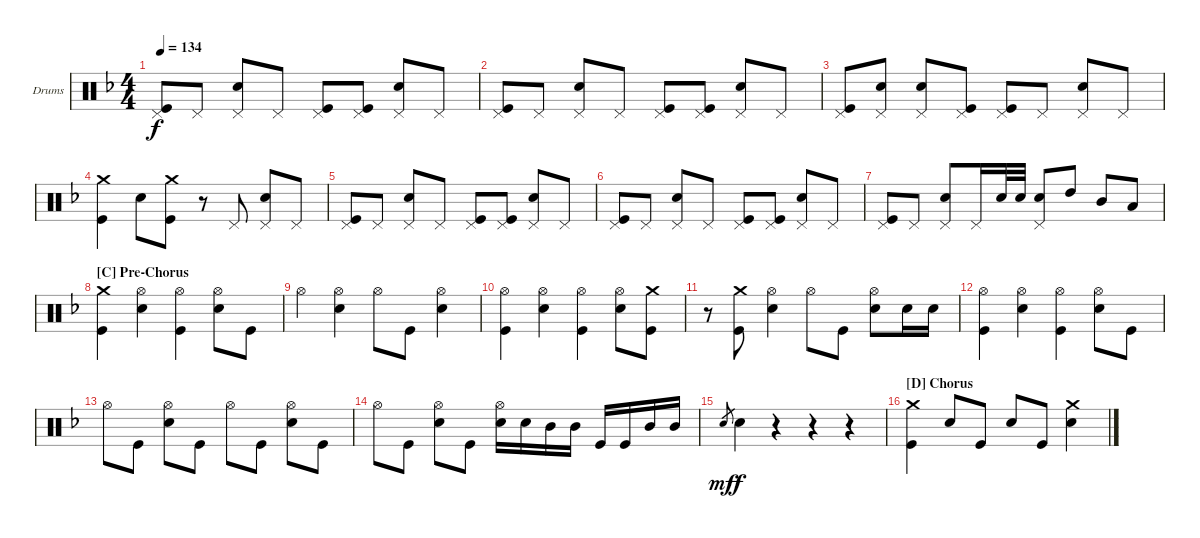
\defaultSystemsLayout 4
\bracketExtendMode groupsimilarinstruments
\firstSystemTrackNameOrientation horizontal
\otherSystemsTrackNameOrientation horizontal
\track ("Carmine" "Drums") {instrument percussion}
\staff {score}
\articulation defaults
\ts (4 4)
\tempo 134
\clef neutral
\ks f
("Pedal Hi-Hat (hit)" "Kick (hit)").8{dy f} "Pedal Hi-Hat (hit)".8 ("Pedal Hi-Hat (hit)" "Snare (hit) 2").8 "Pedal Hi-Hat (hit)".8 ("Pedal Hi-Hat (hit)" "Kick (hit)").8 ("Pedal Hi-Hat (hit)" "Kick (hit)").8 ("Pedal Hi-Hat (hit)" "Snare (hit) 2").8 "Pedal Hi-Hat (hit)".8 |
("Pedal Hi-Hat (hit)" "Kick (hit)").8 "Pedal Hi-Hat (hit)".8 ("Pedal Hi-Hat (hit)" "Snare (hit) 2").8 "Pedal Hi-Hat (hit)".8 ("Pedal Hi-Hat (hit)" "Kick (hit)").8 ("Pedal Hi-Hat (hit)" "Kick (hit)").8 ("Pedal Hi-Hat (hit)" "Snare (hit) 2").8 "Pedal Hi-Hat (hit)".8 |
("Pedal Hi-Hat (hit)" "Kick (hit)").8 ("Pedal Hi-Hat (hit)" "Snare (hit) 2").8 ("Pedal Hi-Hat (hit)" "Snare (hit) 2").8 ("Pedal Hi-Hat (hit)" "Kick (hit)").8 ("Pedal Hi-Hat (hit)" "Kick (hit)").8 "Pedal Hi-Hat (hit)".8 ("Pedal Hi-Hat (hit)" "Snare (hit) 2").8 "Pedal Hi-Hat (hit)".8 |
("Crash medium (hit)" "Kick (hit)").4 "Snare (hit) 2".8 ("Crash medium (hit)" "Kick (hit)").8 r.8 "Pedal Hi-Hat (hit)".8 ("Pedal Hi-Hat (hit)" "Snare (hit) 2").8 "Pedal Hi-Hat (hit)".8 |
("Pedal Hi-Hat (hit)" "Kick (hit)").8 "Pedal Hi-Hat (hit)".8 ("Pedal Hi-Hat (hit)" "Snare (hit) 2").8 "Pedal Hi-Hat (hit)".8 ("Pedal Hi-Hat (hit)" "Kick (hit)").8 ("Pedal Hi-Hat (hit)" "Kick (hit)").8 ("Pedal Hi-Hat (hit)" "Snare (hit) 2").8 "Pedal Hi-Hat (hit)".8 |
("Pedal Hi-Hat (hit)" "Kick (hit)").8 "Pedal Hi-Hat (hit)".8 ("Pedal Hi-Hat (hit)" "Snare (hit) 2").8 "Pedal Hi-Hat (hit)".8 ("Pedal Hi-Hat (hit)" "Kick (hit)").8 ("Pedal Hi-Hat (hit)" "Kick (hit)").8 ("Pedal Hi-Hat (hit)" "Snare (hit) 2").8 "Pedal Hi-Hat (hit)".8 |
("Pedal Hi-Hat (hit)" "Kick (hit)").8 "Pedal Hi-Hat (hit)".8 ("Pedal Hi-Hat (hit)" "Snare (hit) 2").8 "Pedal Hi-Hat (hit)".16 "Snare (hit) 2".32 "Snare (hit) 2".32 ("Pedal Hi-Hat (hit)" "Snare (hit) 2").8 "High Tom (hit)".8 "Mid Tom (hit)".8 "Low Tom (hit)".8 |
\section ("C" "Pre-Chorus")
("Crash medium (hit)" "Kick (hit)").4 ("Hi-Hat (open)" "Snare (hit) 2").4 ("Hi-Hat (open)" "Kick (hit)").4 ("Hi-Hat (open)" "Snare (hit) 2").8 "Kick (hit)".8 |
"Hi-Hat (open)".4 ("Hi-Hat (open)" "Snare (hit) 2").4 "Hi-Hat (open)".8 "Kick (hit)".8 ("Hi-Hat (open)" "Snare (hit) 2").4 |
("Hi-Hat (open)" "Kick (hit)").4 ("Hi-Hat (open)" "Snare (hit) 2").4 ("Hi-Hat (open)" "Kick (hit)").4 ("Hi-Hat (open)" "Snare (hit) 2").8 ("Crash medium (hit)" "Kick (hit)").8 |
r.8 ("Crash medium (hit)" "Kick (hit)").8 ("Hi-Hat (open)" "Snare (hit) 2").4 "Hi-Hat (open)".8 "Kick (hit)".8 ("Hi-Hat (open)" "Snare (hit) 2").8 "Snare (hit) 2".16 "Snare (hit) 2".16 |
("Hi-Hat (open)" "Kick (hit)").4 ("Hi-Hat (open)" "Snare (hit) 2").4 ("Hi-Hat (open)" "Kick (hit)").4 ("Hi-Hat (open)" "Snare (hit) 2").8 "Kick (hit)".8 |
"Hi-Hat (open)".8 "Kick (hit)".8 ("Hi-Hat (open)" "Snare (hit) 2").8 "Kick (hit)".8 "Hi-Hat (open)".8 "Kick (hit)".8 ("Hi-Hat (open)" "Snare (hit) 2").8 "Kick (hit)".8 |
"Hi-Hat (open)".8 "Kick (hit)".8 ("Hi-Hat (open)" "Snare (hit) 2").8 "Kick (hit)".8 ("Hi-Hat (open)" "Snare (hit) 2").16 "Snare (hit) 2".16 "Mid Tom (hit)".16 "Mid Tom (hit)".16 "Kick (hit)".16 "Kick (hit)".16 "Mid Tom (hit)".16 "Mid Tom (hit)".16 |
"Snare (hit) 2".8{gr dy mf} "Snare (hit) 2".4{dy f} r.4 r.4 r.4 |
\section ("D" "Chorus")
("Crash medium (hit)" "Kick (hit)").4 "Snare (hit) 2".8 "Kick (hit)".8 "Snare (hit) 2".8 "Kick (hit)".8 ("Crash medium (hit)" "Snare (hit) 2").4
